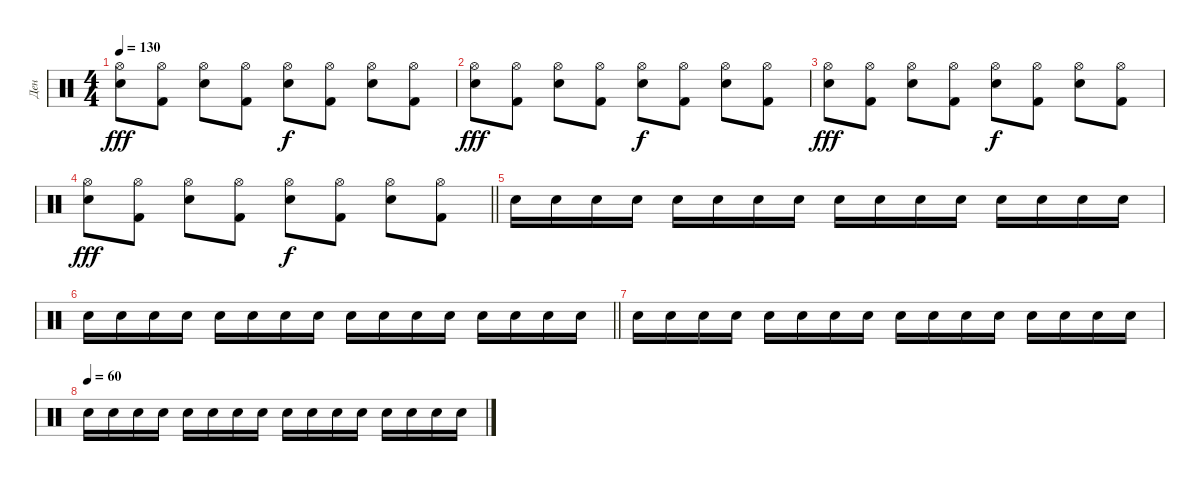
\track ("Ден" "Ден") {instrument percussion}
\staff {score}
\articulation defaults
\ts (4 4)
\tempo 130
\clef neutral
\ks c
("Hi-Hat (open)" "Snare (hit) 2").8{dy fff} ("Hi-Hat (open)" "Kick (hit) 2").8 ("Hi-Hat (open)" "Snare (hit) 2").8 ("Hi-Hat (open)" "Kick (hit) 2").8 ("Hi-Hat (open)" "Snare (hit) 2").8{dy f} ("Hi-Hat (open)" "Kick (hit) 2").8 ("Hi-Hat (open)" "Snare (hit) 2").8 ("Hi-Hat (open)" "Kick (hit) 2").8 |
("Hi-Hat (open)" "Snare (hit) 2").8{dy fff} ("Hi-Hat (open)" "Kick (hit) 2").8 ("Hi-Hat (open)" "Snare (hit) 2").8 ("Hi-Hat (open)" "Kick (hit) 2").8 ("Hi-Hat (open)" "Snare (hit) 2").8{dy f} ("Hi-Hat (open)" "Kick (hit) 2").8 ("Hi-Hat (open)" "Snare (hit) 2").8 ("Hi-Hat (open)" "Kick (hit) 2").8 |
("Hi-Hat (open)" "Snare (hit) 2").8{dy fff} ("Hi-Hat (open)" "Kick (hit) 2").8 ("Hi-Hat (open)" "Snare (hit) 2").8 ("Hi-Hat (open)" "Kick (hit) 2").8 ("Hi-Hat (open)" "Snare (hit) 2").8{dy f} ("Hi-Hat (open)" "Kick (hit) 2").8 ("Hi-Hat (open)" "Snare (hit) 2").8 ("Hi-Hat (open)" "Kick (hit) 2").8 |
\barLineRight lightlight
("Hi-Hat (open)" "Snare (hit) 2").8{dy fff} ("Hi-Hat (open)" "Kick (hit) 2").8 ("Hi-Hat (open)" "Snare (hit) 2").8 ("Hi-Hat (open)" "Kick (hit) 2").8 ("Hi-Hat (open)" "Snare (hit) 2").8{dy f} ("Hi-Hat (open)" "Kick (hit) 2").8 ("Hi-Hat (open)" "Snare (hit) 2").8 ("Hi-Hat (open)" "Kick (hit) 2").8 |
"Snare (hit) 2".16 "Snare (hit) 2".16 "Snare (hit) 2".16 "Snare (hit) 2".16 "Snare (hit) 2".16 "Snare (hit) 2".16 "Snare (hit) 2".16 "Snare (hit) 2".16 "Snare (hit) 2".16 "Snare (hit) 2".16 "Snare (hit) 2".16 "Snare (hit) 2".16 "Snare (hit) 2".16 "Snare (hit) 2".16 "Snare (hit) 2".16 "Snare (hit) 2".16 |
\barLineRight lightlight "Snare (hit) 2".16 "Snare (hit) 2".16 "Snare (hit) 2".16 "Snare (hit) 2".16 "Snare (hit) 2".16 "Snare (hit) 2".16 "Snare (hit) 2".16 "Snare (hit) 2".16 "Snare (hit) 2".16 "Snare (hit) 2".16 "Snare (hit) 2".16 "Snare (hit) 2".16 "Snare (hit) 2".16 "Snare (hit) 2".16 "Snare (hit) 2".16 "Snare (hit) 2".16
|
"Snare (hit) 2".16 "Snare (hit) 2".16 "Snare (hit) 2".16 "Snare (hit) 2".16 "Snare (hit) 2".16 "Snare (hit) 2".16 "Snare (hit) 2".16 "Snare (hit) 2".16 "Snare (hit) 2".16 "Snare (hit) 2".16 "Snare (hit) 2".16 "Snare (hit) 2".16 "Snare (hit) 2".16 "Snare (hit) 2".16 "Snare (hit) 2".16 "Snare (hit) 2".16 |
\tempo (60)
"Snare (hit) 2".16 "Snare (hit) 2".16 "Snare (hit) 2".16 "Snare (hit) 2".16 "Snare (hit) 2".16 "Snare (hit) 2".16 "Snare (hit) 2".16 "Snare (hit) 2".16 "Snare (hit) 2".16 "Snare (hit) 2".16 "Snare (hit) 2".16 "Snare (hit) 2".16 "Snare (hit) 2".16 "Snare (hit) 2".16 "Snare (hit) 2".16 "Snare (hit) 2".16
